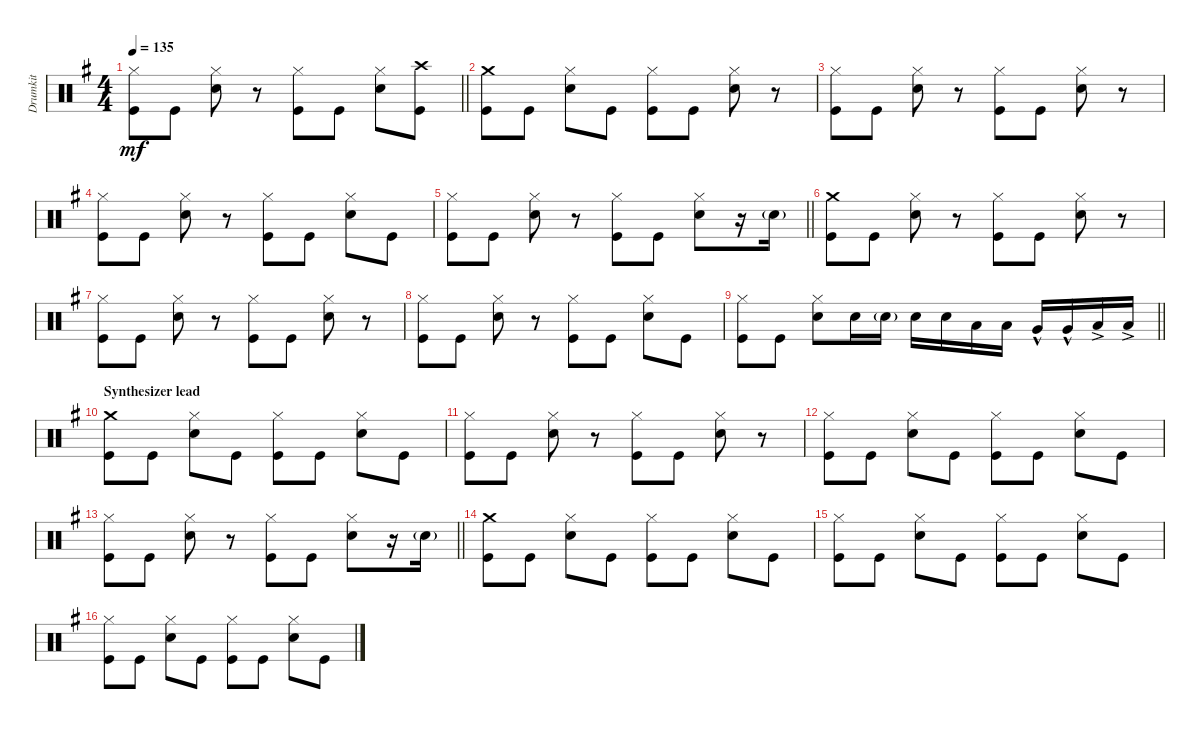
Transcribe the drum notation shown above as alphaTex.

\track ("Drumkit" "Drumkit") {instrument percussion}
\staff {score}
\articulation defaults
\ts (4 4)
\tempo 135
\clef neutral
\barLineRight lightlight
\ks g
("Kick (hit)" "Hi-Hat (closed)").8{dy mf} "Kick (hit)".8 ("Snare (hit) 2" "Hi-Hat (closed)").8 r.8 ("Kick (hit)" "Hi-Hat (closed)").8 "Kick (hit)".8 ("Snare (hit) 2" "Hi-Hat (closed)").8 ("Kick (hit)" "Crash high (hit)").8 |
("Kick (hit)" "Crash medium (hit)").8 "Kick (hit)".8 ("Snare (hit) 2" "Hi-Hat (closed)").8 "Kick (hit)".8 ("Kick (hit)" "Hi-Hat (closed)").8 "Kick (hit)".8 ("Snare (hit) 2" "Hi-Hat (closed)").8 r.8 |
("Kick (hit)" "Hi-Hat (closed)").8 "Kick (hit)".8 ("Snare (hit) 2" "Hi-Hat (closed)").8 r.8 ("Kick (hit)" "Hi-Hat (closed)").8 "Kick (hit)".8 ("Snare (hit) 2" "Hi-Hat (closed)").8 r.8 |
("Kick (hit)" "Hi-Hat (closed)").8 "Kick (hit)".8 ("Snare (hit) 2" "Hi-Hat (closed)").8 r.8 ("Kick (hit)" "Hi-Hat (closed)").8 "Kick (hit)".8 ("Snare (hit) 2" "Hi-Hat (closed)").8 "Kick (hit)".8 |
\barLineRight lightlight
("Kick (hit)" "Hi-Hat (closed)").8 "Kick (hit)".8 ("Snare (hit) 2" "Hi-Hat (closed)").8 r.8 ("Kick (hit)" "Hi-Hat (closed)").8 "Kick (hit)".8 ("Snare (hit) 2" "Hi-Hat (closed)").8 r.16 "Snare (hit) 2"{g}.16 |
("Kick (hit)" "Crash medium (hit)").8 "Kick (hit)".8 ("Snare (hit) 2" "Hi-Hat (closed)").8 r.8 ("Kick (hit)" "Hi-Hat (closed)").8 "Kick (hit)".8 ("Snare (hit) 2" "Hi-Hat (closed)").8 r.8 |
("Kick (hit)" "Hi-Hat (closed)").8 "Kick (hit)".8 ("Snare (hit) 2" "Hi-Hat (closed)").8 r.8 ("Kick (hit)" "Hi-Hat (closed)").8 "Kick (hit)".8 ("Snare (hit) 2" "Hi-Hat (closed)").8 r.8 |
("Kick (hit)" "Hi-Hat (closed)").8 "Kick (hit)".8 ("Snare (hit) 2" "Hi-Hat (closed)").8 r.8 ("Kick (hit)" "Hi-Hat (closed)").8 "Kick (hit)".8 ("Snare (hit) 2" "Hi-Hat (closed)").8 "Kick (hit)".8 |
\barLineRight lightlight
("Kick (hit)" "Hi-Hat (closed)").8 "Kick (hit)".8 ("Hi-Hat (closed)" "Snare (hit) 2").8 "Snare (hit) 2".16 "Snare (hit) 2"{g}.16 "Snare (hit) 2".16 "Snare (hit) 2".16 "Low Tom (hit)".16 "Low Tom (hit)".16 "Very Low Tom (hit)"{hac}.16 "Very Low Tom (hit)"{hac}.16 "Low Floor Tom (hit)"{ac}.16 "Low Floor Tom (hit)"{ac}.16 |
\section ("" "Synthesizer lead")
("Kick (hit)" "Crash medium (hit)").8 "Kick (hit)".8 ("Snare (hit) 2" "Hi-Hat (closed)").8 "Kick (hit)".8 ("Kick (hit)" "Hi-Hat (closed)").8 "Kick (hit)".8 ("Snare (hit) 2" "Hi-Hat (closed)").8 "Kick (hit)".8 |
("Kick (hit)" "Hi-Hat (closed)").8 "Kick (hit)".8 ("Snare (hit) 2" "Hi-Hat (closed)").8 r.8 ("Kick (hit)" "Hi-Hat (closed)").8 "Kick (hit)".8 ("Snare (hit) 2" "Hi-Hat (closed)").8 r.8 |
("Kick (hit)" "Hi-Hat (closed)").8 "Kick (hit)".8 ("Snare (hit) 2" "Hi-Hat (closed)").8 "Kick (hit)".8 ("Kick (hit)" "Hi-Hat (closed)").8 "Kick (hit)".8 ("Snare (hit) 2" "Hi-Hat (closed)").8 "Kick (hit)".8 |
\barLineRight lightlight
("Kick (hit)" "Hi-Hat (closed)").8 "Kick (hit)".8 ("Snare (hit) 2" "Hi-Hat (closed)").8 r.8 ("Kick (hit)" "Hi-Hat (closed)").8 "Kick (hit)".8 ("Snare (hit) 2" "Hi-Hat (closed)").8 r.16 "Snare (hit) 2"{g}.16 |
("Kick (hit)" "Crash medium (hit)").8 "Kick (hit)".8 ("Snare (hit) 2" "Hi-Hat (closed)").8 "Kick (hit)".8 ("Kick (hit)" "Hi-Hat (closed)").8 "Kick (hit)".8 ("Snare (hit) 2" "Hi-Hat (closed)").8 "Kick (hit)".8 |
("Kick (hit)" "Hi-Hat (closed)").8 "Kick (hit)".8 ("Snare (hit) 2" "Hi-Hat (closed)").8 "Kick (hit)".8 ("Kick (hit)" "Hi-Hat (closed)").8 "Kick (hit)".8 ("Snare (hit) 2" "Hi-Hat (closed)").8 "Kick (hit)".8 |
("Kick (hit)" "Hi-Hat (closed)").8 "Kick (hit)".8 ("Snare (hit) 2" "Hi-Hat (closed)").8 "Kick (hit)".8 ("Kick (hit)" "Hi-Hat (closed)").8 "Kick (hit)".8 ("Snare (hit) 2" "Hi-Hat (closed)").8 "Kick (hit)".8
